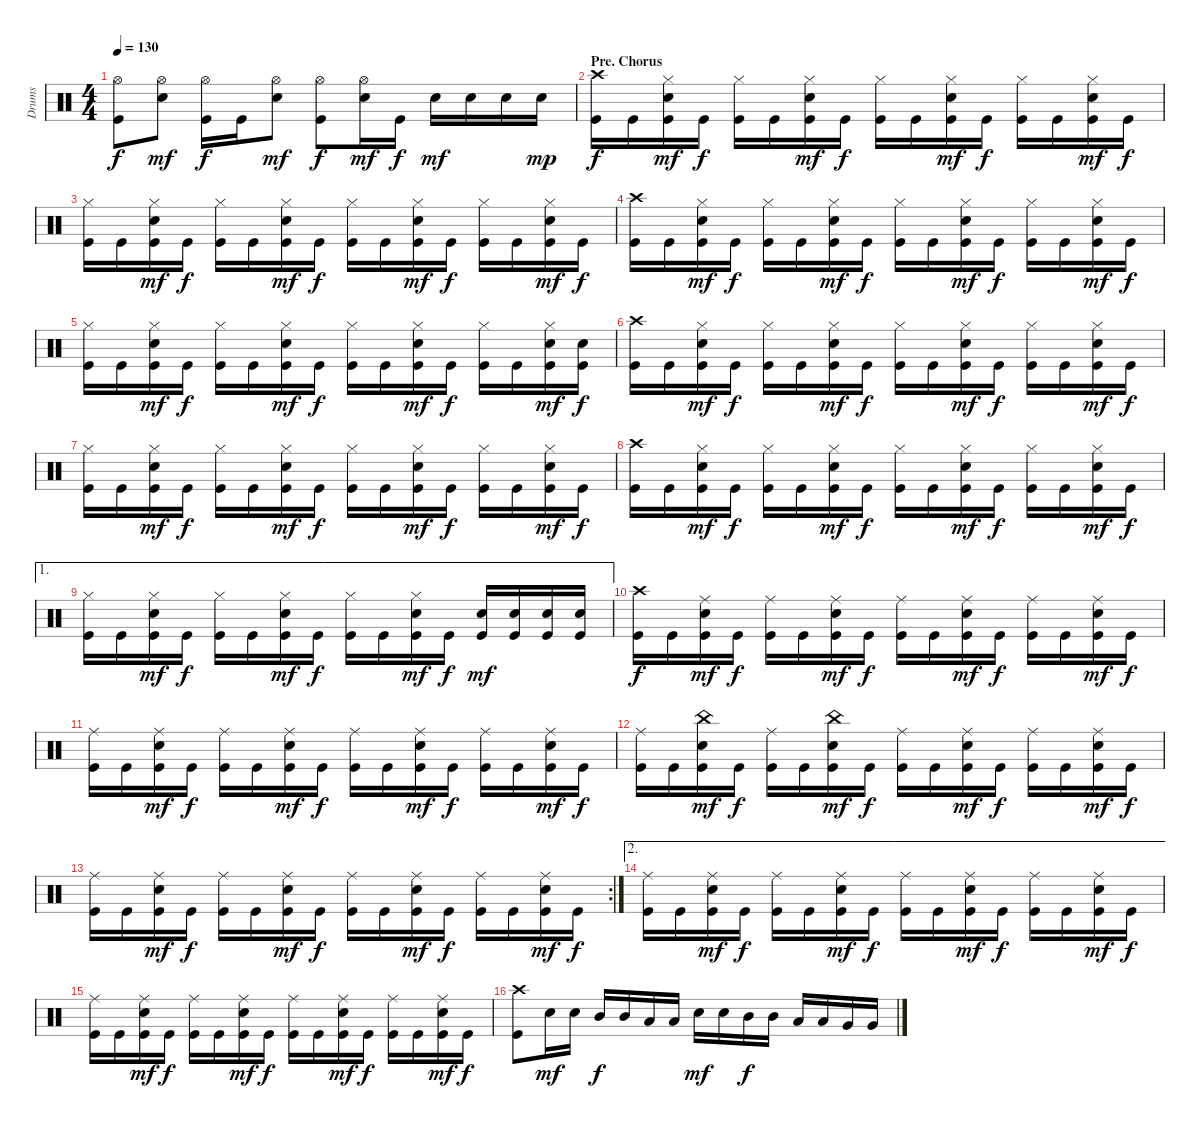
\track ("Drums" "Drums") {instrument percussion}
\staff {score}
\articulation defaults
\ts (4 4)
\tempo 130
\clef neutral
\ks c
("Hi-Hat (open)" "Kick (hit)").8{dy f} ("Hi-Hat (open)" "Snare (hit) 2").8{dy mf} ("Hi-Hat (open)" "Kick (hit)").16{dy f} "Kick (hit)".16 ("Hi-Hat (open)" "Snare (hit) 2").8{dy mf} ("Hi-Hat (open)" "Kick (hit)").8{dy f} ("Hi-Hat (open)" "Snare (hit) 2").16{dy mf} "Kick (hit)".16{dy f} "Snare (hit) 2".16{dy mf} "Snare (hit) 2".16 "Snare (hit) 2".16 "Snare (hit) 2".16{dy mp} |
\section ("" "Pre. Chorus")
("Crash high (hit)" "Kick (hit)").16{dy f} "Kick (hit)".16 ("Hi-Hat (closed)" "Snare (hit) 2" "Kick (hit)").16{dy mf} "Kick (hit)".16{dy f} ("Hi-Hat (closed)" "Kick (hit)").16 "Kick (hit)".16 ("Hi-Hat (closed)" "Snare (hit) 2" "Kick (hit)").16{dy mf} "Kick (hit)".16{dy f} ("Hi-Hat (closed)" "Kick (hit)").16 "Kick (hit)".16 ("Hi-Hat (closed)" "Snare (hit) 2" "Kick (hit)").16{dy mf} "Kick (hit)".16{dy f} ("Hi-Hat (closed)" "Kick (hit)").16 "Kick (hit)".16 ("Hi-Hat (closed)" "Snare (hit) 2" "Kick (hit)").16{dy mf} "Kick (hit)".16{dy f} |
("Hi-Hat (closed)" "Kick (hit)").16 "Kick (hit)".16 ("Hi-Hat (closed)" "Snare (hit) 2" "Kick (hit)").16{dy mf} "Kick (hit)".16{dy f} ("Hi-Hat (closed)" "Kick (hit)").16 "Kick (hit)".16 ("Hi-Hat (closed)" "Snare (hit) 2" "Kick (hit)").16{dy mf} "Kick (hit)".16{dy f} ("Hi-Hat (closed)" "Kick (hit)").16 "Kick (hit)".16 ("Hi-Hat (closed)" "Snare (hit) 2" "Kick (hit)").16{dy mf} "Kick (hit)".16{dy f} ("Hi-Hat (closed)" "Kick (hit)").16 "Kick (hit)".16 ("Hi-Hat (closed)" "Snare (hit) 2" "Kick (hit)").16{dy mf} "Kick (hit)".16{dy f} |
("Crash high (hit)" "Kick (hit)").16 "Kick (hit)".16 ("Hi-Hat (closed)" "Snare (hit) 2" "Kick (hit)").16{dy mf} "Kick (hit)".16{dy f} ("Hi-Hat (closed)" "Kick (hit)").16 "Kick (hit)".16 ("Hi-Hat (closed)" "Snare (hit) 2" "Kick (hit)").16{dy mf} "Kick (hit)".16{dy f} ("Hi-Hat (closed)" "Kick (hit)").16 "Kick (hit)".16 ("Hi-Hat (closed)" "Snare (hit) 2" "Kick (hit)").16{dy mf} "Kick (hit)".16{dy f} ("Hi-Hat (closed)" "Kick (hit)").16 "Kick (hit)".16 ("Hi-Hat (closed)" "Snare (hit) 2" "Kick (hit)").16{dy mf} "Kick (hit)".16{dy f} |
("Hi-Hat (closed)" "Kick (hit)").16 "Kick (hit)".16 ("Hi-Hat (closed)" "Snare (hit) 2" "Kick (hit)").16{dy mf} "Kick (hit)".16{dy f} ("Hi-Hat (closed)" "Kick (hit)").16 "Kick (hit)".16 ("Hi-Hat (closed)" "Snare (hit) 2" "Kick (hit)").16{dy mf} "Kick (hit)".16{dy f} ("Hi-Hat (closed)" "Kick (hit)").16 "Kick (hit)".16 ("Hi-Hat (closed)" "Snare (hit) 2" "Kick (hit)").16{dy mf} "Kick (hit)".16{dy f} ("Hi-Hat (closed)" "Kick (hit)").16 "Kick (hit)".16 ("Hi-Hat (closed)" "Snare (hit) 2" "Kick (hit)").16{dy mf} ("Snare (hit) 2" "Kick (hit)").16{dy f} |
("Crash high (hit)" "Kick (hit)").16 "Kick (hit)".16 ("Hi-Hat (closed)" "Snare (hit) 2" "Kick (hit)").16{dy mf} "Kick (hit)".16{dy f} ("Hi-Hat (closed)" "Kick (hit)").16 "Kick (hit)".16 ("Hi-Hat (closed)" "Snare (hit) 2" "Kick (hit)").16{dy mf} "Kick (hit)".16{dy f} ("Hi-Hat (closed)" "Kick (hit)").16 "Kick (hit)".16 ("Hi-Hat (closed)" "Snare (hit) 2" "Kick (hit)").16{dy mf} "Kick (hit)".16{dy f} ("Hi-Hat (closed)" "Kick (hit)").16 "Kick (hit)".16 ("Hi-Hat (closed)" "Snare (hit) 2" "Kick (hit)").16{dy mf} "Kick (hit)".16{dy f} |
("Hi-Hat (closed)" "Kick (hit)").16 "Kick (hit)".16 ("Hi-Hat (closed)" "Snare (hit) 2" "Kick (hit)").16{dy mf} "Kick (hit)".16{dy f} ("Hi-Hat (closed)" "Kick (hit)").16 "Kick (hit)".16 ("Hi-Hat (closed)" "Snare (hit) 2" "Kick (hit)").16{dy mf} "Kick (hit)".16{dy f} ("Hi-Hat (closed)" "Kick (hit)").16 "Kick (hit)".16 ("Hi-Hat (closed)" "Snare (hit) 2" "Kick (hit)").16{dy mf} "Kick (hit)".16{dy f} ("Hi-Hat (closed)" "Kick (hit)").16 "Kick (hit)".16 ("Hi-Hat (closed)" "Snare (hit) 2" "Kick (hit)").16{dy mf} "Kick (hit)".16{dy f} |
("Crash high (hit)" "Kick (hit)").16 "Kick (hit)".16 ("Hi-Hat (closed)" "Snare (hit) 2" "Kick (hit)").16{dy mf} "Kick (hit)".16{dy f} ("Hi-Hat (closed)" "Kick (hit)").16 "Kick (hit)".16 ("Hi-Hat (closed)" "Snare (hit) 2" "Kick (hit)").16{dy mf} "Kick (hit)".16{dy f} ("Hi-Hat (closed)" "Kick (hit)").16 "Kick (hit)".16 ("Hi-Hat (closed)" "Snare (hit) 2" "Kick (hit)").16{dy mf} "Kick (hit)".16{dy f} ("Hi-Hat (closed)" "Kick (hit)").16 "Kick (hit)".16 ("Hi-Hat (closed)" "Snare (hit) 2" "Kick (hit)").16{dy mf} "Kick (hit)".16{dy f} |
\ae 1
("Hi-Hat (closed)" "Kick (hit)").16 "Kick (hit)".16 ("Hi-Hat (closed)" "Snare (hit) 2" "Kick (hit)").16{dy mf} "Kick (hit)".16{dy f} ("Hi-Hat (closed)" "Kick (hit)").16 "Kick (hit)".16 ("Hi-Hat (closed)" "Snare (hit) 2" "Kick (hit)").16{dy mf} "Kick (hit)".16{dy f} ("Hi-Hat (closed)" "Kick (hit)").16 "Kick (hit)".16 ("Hi-Hat (closed)" "Snare (hit) 2" "Kick (hit)").16{dy mf} "Kick (hit)".16{dy f} ("Snare (hit) 2" "Kick (hit)").16{dy mf} ("Snare (hit) 2" "Kick (hit)").16 ("Snare (hit) 2" "Kick (hit)").16 ("Snare (hit) 2" "Kick (hit)").16 |
("Crash high (hit)" "Kick (hit)").16{dy f} "Kick (hit)".16 ("Ride (middle)" "Snare (hit) 2" "Kick (hit)").16{dy mf} "Kick (hit)".16{dy f} ("Ride (middle)" "Kick (hit)").16 "Kick (hit)".16 ("Ride (middle)" "Snare (hit) 2" "Kick (hit)").16{dy mf} "Kick (hit)".16{dy f} ("Ride (middle)" "Kick (hit)").16 "Kick (hit)".16 ("Ride (middle)" "Snare (hit) 2" "Kick (hit)").16{dy mf} "Kick (hit)".16{dy f} ("Ride (middle)" "Kick (hit)").16 "Kick (hit)".16 ("Ride (middle)" "Snare (hit) 2" "Kick (hit)").16{dy mf} "Kick (hit)".16{dy f} |
("Ride (middle)" "Kick (hit)").16 "Kick (hit)".16 ("Ride (middle)" "Snare (hit) 2" "Kick (hit)").16{dy mf} "Kick (hit)".16{dy f} ("Ride (middle)" "Kick (hit)").16 "Kick (hit)".16 ("Ride (middle)" "Snare (hit) 2" "Kick (hit)").16{dy mf} "Kick (hit)".16{dy f} ("Ride (middle)" "Kick (hit)").16 "Kick (hit)".16 ("Ride (middle)" "Snare (hit) 2" "Kick (hit)").16{dy mf} "Kick (hit)".16{dy f} ("Ride (middle)" "Kick (hit)").16 "Kick (hit)".16 ("Ride (middle)" "Snare (hit) 2" "Kick (hit)").16{dy mf} "Kick (hit)".16{dy f} |
("Ride (middle)" "Kick (hit)").16 "Kick (hit)".16 ("China (hit)" "Snare (hit) 2" "Kick (hit)").16{dy mf} "Kick (hit)".16{dy f} ("Ride (middle)" "Kick (hit)").16 "Kick (hit)".16 ("China (hit)" "Snare (hit) 2" "Kick (hit)").16{dy mf} "Kick (hit)".16{dy f} ("Ride (middle)" "Kick (hit)").16 "Kick (hit)".16 ("Ride (middle)" "Snare (hit) 2" "Kick (hit)").16{dy mf} "Kick (hit)".16{dy f} ("Ride (middle)" "Kick (hit)").16 "Kick (hit)".16 ("Ride (middle)" "Snare (hit) 2" "Kick (hit)").16{dy mf} "Kick (hit)".16{dy f} |
\rc 2
("Ride (middle)" "Kick (hit)").16 "Kick (hit)".16 ("Ride (middle)" "Snare (hit) 2" "Kick (hit)").16{dy mf} "Kick (hit)".16{dy f} ("Ride (middle)" "Kick (hit)").16 "Kick (hit)".16 ("Ride (middle)" "Snare (hit) 2" "Kick (hit)").16{dy mf} "Kick (hit)".16{dy f} ("Ride (middle)" "Kick (hit)").16 "Kick (hit)".16 ("Ride (middle)" "Snare (hit) 2" "Kick (hit)").16{dy mf} "Kick (hit)".16{dy f} ("Ride (middle)" "Kick (hit)").16 "Kick (hit)".16 ("Ride (middle)" "Snare (hit) 2" "Kick (hit)").16{dy mf} "Kick (hit)".16{dy f} |
\ae 2
("Ride (middle)" "Kick (hit)").16 "Kick (hit)".16 ("Ride (middle)" "Snare (hit) 2" "Kick (hit)").16{dy mf} "Kick (hit)".16{dy f} ("Ride (middle)" "Kick (hit)").16 "Kick (hit)".16 ("Ride (middle)" "Snare (hit) 2" "Kick (hit)").16{dy mf} "Kick (hit)".16{dy f} ("Ride (middle)" "Kick (hit)").16 "Kick (hit)".16 ("Ride (middle)" "Snare (hit) 2" "Kick (hit)").16{dy mf} "Kick (hit)".16{dy f} ("Ride (middle)" "Kick (hit)").16 "Kick (hit)".16 ("Ride (middle)" "Snare (hit) 2" "Kick (hit)").16{dy mf} "Kick (hit)".16{dy f} |
("Ride (middle)" "Kick (hit)").16 "Kick (hit)".16 ("Ride (middle)" "Snare (hit) 2" "Kick (hit)").16{dy mf} "Kick (hit)".16{dy f} ("Ride (middle)" "Kick (hit)").16 "Kick (hit)".16 ("Ride (middle)" "Snare (hit) 2" "Kick (hit)").16{dy mf} "Kick (hit)".16{dy f} ("Ride (middle)" "Kick (hit)").16 "Kick (hit)".16 ("Ride (middle)" "Snare (hit) 2" "Kick (hit)").16{dy mf} "Kick (hit)".16{dy f} ("Ride (middle)" "Kick (hit)").16 "Kick (hit)".16 ("Ride (middle)" "Snare (hit) 2" "Kick (hit)").16{dy mf} "Kick (hit)".16{dy f} |
("Crash high (hit)" "Kick (hit)").8 "Snare (hit) 2".16{dy mf} "Snare (hit) 2".16 "Mid Tom (hit)".16{dy f} "Mid Tom (hit)".16 "Low Tom (hit)".16 "Low Tom (hit)".16 "Snare (hit) 2".16{dy mf} "Snare (hit) 2".16 "Mid Tom (hit)".16{dy f} "Mid Tom (hit)".16 "Low Tom (hit)".16 "Low Tom (hit)".16 "Very Low Tom (hit)".16 "Very Low Tom (hit)".16
